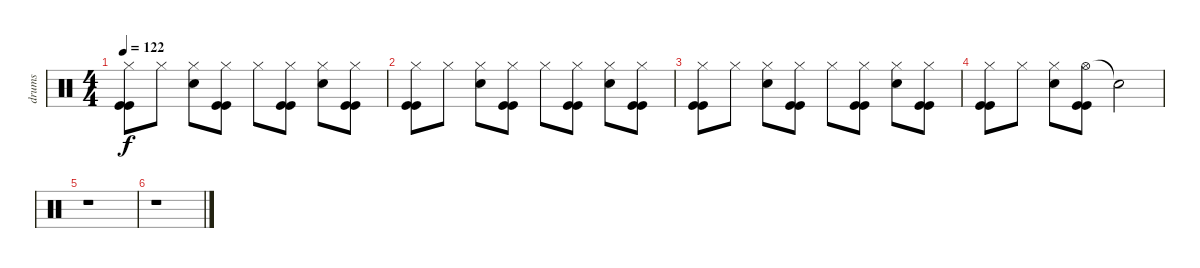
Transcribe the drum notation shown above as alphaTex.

\track ("drums" "drums") {instrument percussion}
\staff {score}
\articulation defaults
\ts (4 4)
\tempo 122
\clef neutral
\ks c
("Hi-Hat (closed)" "Kick (hit)" "Kick (hit)").8{dy f} "Hi-Hat (closed)".8 ("Hi-Hat (closed)" "Electric Snare (hit)").8 ("Hi-Hat (closed)" "Kick (hit)" "Kick (hit)").8 "Hi-Hat (closed)".8 ("Hi-Hat (closed)" "Kick (hit)" "Kick (hit)").8 ("Hi-Hat (closed)" "Electric Snare (hit)").8 ("Hi-Hat (closed)" "Kick (hit)" "Kick (hit)").8 |
("Hi-Hat (closed)" "Kick (hit)" "Kick (hit)").8 "Hi-Hat (closed)".8 ("Hi-Hat (closed)" "Electric Snare (hit)").8 ("Hi-Hat (closed)" "Kick (hit)" "Kick (hit)").8 "Hi-Hat (closed)".8 ("Hi-Hat (closed)" "Kick (hit)" "Kick (hit)").8 ("Hi-Hat (closed)" "Electric Snare (hit)").8 ("Hi-Hat (closed)" "Kick (hit)" "Kick (hit)").8 |
("Hi-Hat (closed)" "Kick (hit)" "Kick (hit)").8 "Hi-Hat (closed)".8 ("Hi-Hat (closed)" "Electric Snare (hit)").8 ("Hi-Hat (closed)" "Kick (hit)" "Kick (hit)").8 "Hi-Hat (closed)".8 ("Hi-Hat (closed)" "Kick (hit)" "Kick (hit)").8 ("Hi-Hat (closed)" "Electric Snare (hit)").8 ("Hi-Hat (closed)" "Kick (hit)" "Kick (hit)").8 |
("Hi-Hat (closed)" "Kick (hit)" "Kick (hit)").8 "Hi-Hat (closed)".8 ("Hi-Hat (closed)" "Electric Snare (hit)").8 ("Hi-Hat (open)" "Kick (hit)" "Kick (hit)").8 "Snare (hit)"{t}.2 |
r.1 |
r.1
